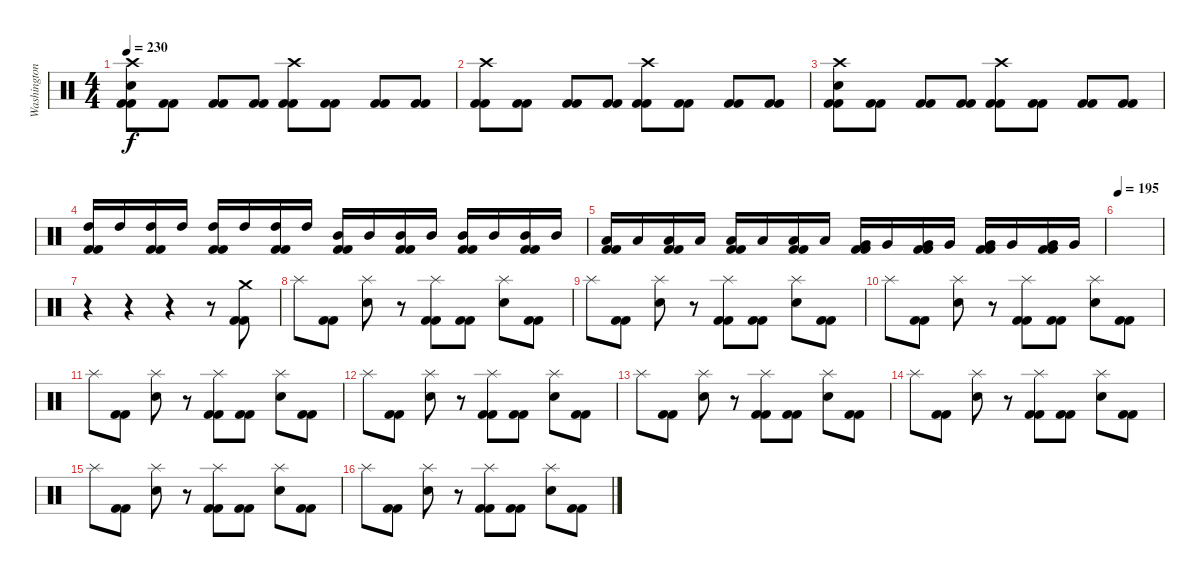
\track ("Washington" "Washington") {solo instrument percussion}
\staff {score}
\articulation defaults
\ts (4 4)
\tempo 230
\clef neutral
\ks c
("Crash high (hit)" "Electric Snare (hit)" "Kick (hit) 2" "Kick (hit) 2").8{dy f} ("Kick (hit) 2" "Kick (hit) 2").8 ("Kick (hit) 2" "Kick (hit) 2").8 ("Kick (hit) 2" "Kick (hit) 2").8 ("Crash high (hit)" "Kick (hit) 2" "Kick (hit) 2").8 ("Kick (hit) 2" "Kick (hit) 2").8 ("Kick (hit) 2" "Kick (hit) 2").8 ("Kick (hit) 2" "Kick (hit) 2").8 |
("Crash high (hit)" "Kick (hit) 2" "Kick (hit) 2").8 ("Kick (hit) 2" "Kick (hit) 2").8 ("Kick (hit) 2" "Kick (hit) 2").8 ("Kick (hit) 2" "Kick (hit) 2").8 ("Crash high (hit)" "Kick (hit) 2" "Kick (hit) 2").8 ("Kick (hit) 2" "Kick (hit) 2").8 ("Kick (hit) 2" "Kick (hit) 2").8 ("Kick (hit) 2" "Kick (hit) 2").8 |
("Crash high (hit)" "Electric Snare (hit)" "Kick (hit) 2" "Kick (hit) 2").8 ("Kick (hit) 2" "Kick (hit) 2").8 ("Kick (hit) 2" "Kick (hit) 2").8 ("Kick (hit) 2" "Kick (hit) 2").8 ("Crash high (hit)" "Kick (hit) 2" "Kick (hit) 2").8 ("Kick (hit) 2" "Kick (hit) 2").8 ("Kick (hit) 2" "Kick (hit) 2").8 ("Kick (hit) 2" "Kick (hit) 2").8 |
("High Tom (hit)" "Kick (hit) 2" "Kick (hit) 2").16 "High Tom (hit)".16 ("High Tom (hit)" "Kick (hit) 2" "Kick (hit) 2").16 "High Tom (hit)".16 ("High Tom (hit)" "Kick (hit) 2" "Kick (hit) 2").16 "High Tom (hit)".16 ("High Tom (hit)" "Kick (hit) 2" "Kick (hit) 2").16 "High Tom (hit)".16 ("Mid Tom (hit)" "Kick (hit) 2" "Kick (hit) 2").16 "Mid Tom (hit)".16 ("Mid Tom (hit)" "Kick (hit) 2" "Kick (hit) 2").16 "Mid Tom (hit)".16 ("Mid Tom (hit)" "Kick (hit) 2" "Kick (hit) 2").16 "Mid Tom (hit)".16 ("Mid Tom (hit)" "Kick (hit) 2" "Kick (hit) 2").16 "Mid Tom (hit)".16 |
("Low Tom (hit)" "Kick (hit) 2" "Kick (hit) 2").16 "Low Tom (hit)".16 ("Low Tom (hit)" "Kick (hit) 2" "Kick (hit) 2").16 "Low Tom (hit)".16 ("Low Tom (hit)" "Kick (hit) 2" "Kick (hit) 2").16 "Low Tom (hit)".16 ("Low Tom (hit)" "Kick (hit) 2" "Kick (hit) 2").16 "Low Tom (hit)".16 ("Very Low Tom (hit)" "Kick (hit) 2" "Kick (hit) 2").16 "Very Low Tom (hit)".16 ("Very Low Tom (hit)" "Kick (hit) 2" "Kick (hit) 2").16 "Very Low Tom (hit)".16 ("Very Low Tom (hit)" "Kick (hit) 2" "Kick (hit) 2").16 "Very Low Tom (hit)".16 ("Very Low Tom (hit)" "Kick (hit) 2" "Kick (hit) 2").16 "Very Low Tom (hit)".16 |
\tempo 195
|
r.4 r.4 r.4 r.8 ("Crash medium (hit)" "Kick (hit) 2" "Kick (hit) 2").8 |
"Splash (hit)".8 ("Kick (hit) 2" "Kick (hit) 2").8 ("Splash (hit)" "Electric Snare (hit)").8 r.8 ("Splash (hit)" "Kick (hit) 2" "Kick (hit) 2").8 ("Kick (hit) 2" "Kick (hit) 2").8 ("Splash (hit)" "Electric Snare (hit)").8 ("Kick (hit) 2" "Kick (hit) 2").8 |
"Splash (hit)".8 ("Kick (hit) 2" "Kick (hit) 2").8 ("Splash (hit)" "Electric Snare (hit)").8 r.8 ("Splash (hit)" "Kick (hit) 2" "Kick (hit) 2").8 ("Kick (hit) 2" "Kick (hit) 2").8 ("Splash (hit)" "Electric Snare (hit)").8 ("Kick (hit) 2" "Kick (hit) 2").8 |
"Splash (hit)".8 ("Kick (hit) 2" "Kick (hit) 2").8 ("Splash (hit)" "Electric Snare (hit)").8 r.8 ("Splash (hit)" "Kick (hit) 2" "Kick (hit) 2").8 ("Kick (hit) 2" "Kick (hit) 2").8 ("Splash (hit)" "Electric Snare (hit)").8 ("Kick (hit) 2" "Kick (hit) 2").8 |
"Splash (hit)".8 ("Kick (hit) 2" "Kick (hit) 2").8 ("Splash (hit)" "Electric Snare (hit)").8 r.8 ("Splash (hit)" "Kick (hit) 2" "Kick (hit) 2").8 ("Kick (hit) 2" "Kick (hit) 2").8 ("Splash (hit)" "Electric Snare (hit)").8 ("Kick (hit) 2" "Kick (hit) 2").8 |
"Splash (hit)".8 ("Kick (hit) 2" "Kick (hit) 2").8 ("Splash (hit)" "Electric Snare (hit)").8 r.8 ("Splash (hit)" "Kick (hit) 2" "Kick (hit) 2").8 ("Kick (hit) 2" "Kick (hit) 2").8 ("Splash (hit)" "Electric Snare (hit)").8 ("Kick (hit) 2" "Kick (hit) 2").8 |
"Splash (hit)".8 ("Kick (hit) 2" "Kick (hit) 2").8 ("Splash (hit)" "Electric Snare (hit)").8 r.8 ("Splash (hit)" "Kick (hit) 2" "Kick (hit) 2").8 ("Kick (hit) 2" "Kick (hit) 2").8 ("Splash (hit)" "Electric Snare (hit)").8 ("Kick (hit) 2" "Kick (hit) 2").8 |
"Splash (hit)".8 ("Kick (hit) 2" "Kick (hit) 2").8 ("Splash (hit)" "Electric Snare (hit)").8 r.8 ("Splash (hit)" "Kick (hit) 2" "Kick (hit) 2").8 ("Kick (hit) 2" "Kick (hit) 2").8 ("Splash (hit)" "Electric Snare (hit)").8 ("Kick (hit) 2" "Kick (hit) 2").8 |
"Splash (hit)".8 ("Kick (hit) 2" "Kick (hit) 2").8 ("Splash (hit)" "Electric Snare (hit)").8 r.8 ("Splash (hit)" "Kick (hit) 2" "Kick (hit) 2").8 ("Kick (hit) 2" "Kick (hit) 2").8 ("Splash (hit)" "Electric Snare (hit)").8 ("Kick (hit) 2" "Kick (hit) 2").8 |
"Splash (hit)".8 ("Kick (hit) 2" "Kick (hit) 2").8 ("Splash (hit)" "Electric Snare (hit)").8 r.8 ("Splash (hit)" "Kick (hit) 2" "Kick (hit) 2").8 ("Kick (hit) 2" "Kick (hit) 2").8 ("Splash (hit)" "Electric Snare (hit)").8 ("Kick (hit) 2" "Kick (hit) 2").8
